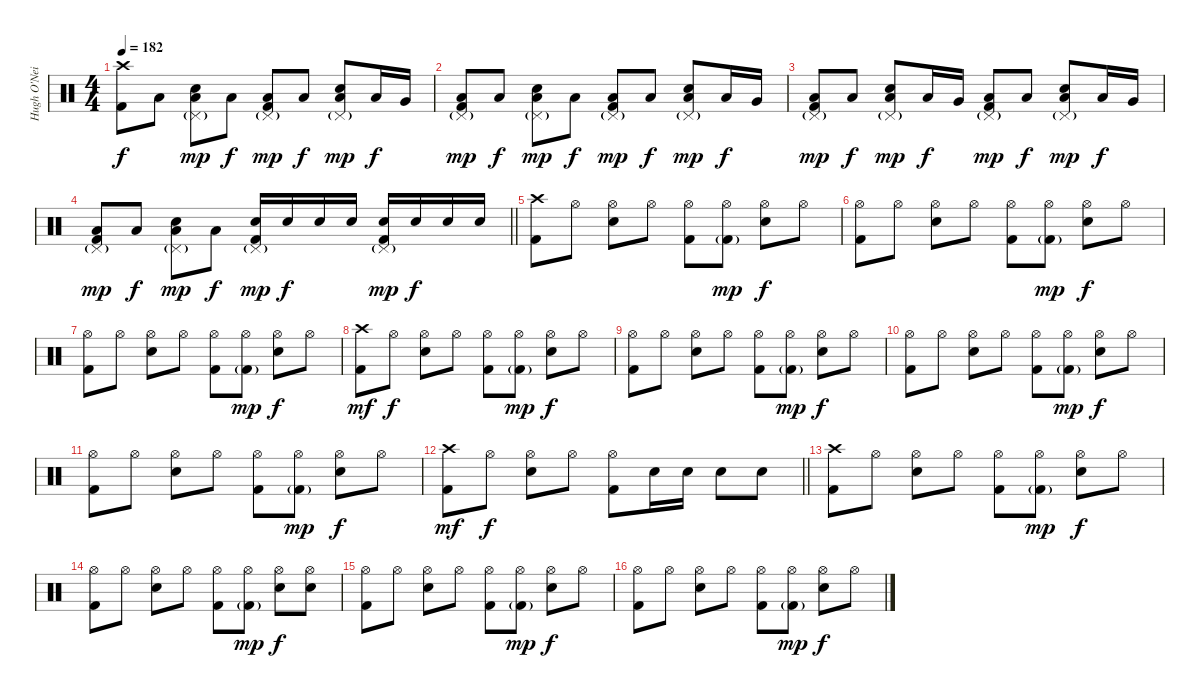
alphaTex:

\track ("Hugh O'Neil" "Hugh O'Nei") {instrument percussion}
\staff {score}
\articulation defaults
\ts (4 4)
\section ("" "")
\tempo 182
\clef neutral
\ks c
("Crash high (hit)" "Kick (hit) 2").8{dy f} "Low Floor Tom (hit)".8 ("Pedal Hi-Hat (hit)"{g} "Electric Snare (hit)" "Low Floor Tom (hit)").8{dy mp} "Low Floor Tom (hit)".8{dy f} ("Pedal Hi-Hat (hit)"{g} "Low Floor Tom (hit)" "Kick (hit) 2").8{dy mp} "Low Floor Tom (hit)".8{dy f} ("Pedal Hi-Hat (hit)"{g} "Electric Snare (hit)" "Low Floor Tom (hit)").8{dy mp} "Low Floor Tom (hit)".16{dy f} "Very Low Tom (hit)".16 |
("Pedal Hi-Hat (hit)"{g} "Low Floor Tom (hit)" "Kick (hit) 2").8{dy mp} "Low Floor Tom (hit)".8{dy f} ("Pedal Hi-Hat (hit)"{g} "Electric Snare (hit)" "Low Floor Tom (hit)").8{dy mp} "Low Floor Tom (hit)".8{dy f} ("Pedal Hi-Hat (hit)"{g} "Low Floor Tom (hit)" "Kick (hit) 2").8{dy mp} "Low Floor Tom (hit)".8{dy f} ("Pedal Hi-Hat (hit)"{g} "Electric Snare (hit)" "Low Floor Tom (hit)").8{dy mp} "Low Floor Tom (hit)".16{dy f} "Very Low Tom (hit)".16 |
("Pedal Hi-Hat (hit)"{g} "Low Floor Tom (hit)" "Kick (hit) 2").8{dy mp} "Low Floor Tom (hit)".8{dy f} ("Pedal Hi-Hat (hit)"{g} "Electric Snare (hit)" "Low Floor Tom (hit)").8{dy mp} "Low Floor Tom (hit)".16{dy f} "Very Low Tom (hit)".16 ("Pedal Hi-Hat (hit)"{g} "Low Floor Tom (hit)" "Kick (hit) 2").8{dy mp} "Low Floor Tom (hit)".8{dy f} ("Pedal Hi-Hat (hit)"{g} "Electric Snare (hit)" "Low Floor Tom (hit)").8{dy mp} "Low Floor Tom (hit)".16{dy f} "Very Low Tom (hit)".16 |
\barLineRight lightlight
("Pedal Hi-Hat (hit)"{g} "Low Floor Tom (hit)" "Kick (hit) 2").8{dy mp} "Low Floor Tom (hit)".8{dy f} ("Pedal Hi-Hat (hit)"{g} "Electric Snare (hit)" "Low Floor Tom (hit)").8{dy mp} "Low Floor Tom (hit)".8{dy f} ("Pedal Hi-Hat (hit)"{g} "Electric Snare (hit)" "Kick (hit) 2").16{dy mp} "Electric Snare (hit)".16{dy f} "Electric Snare (hit)".16 "Electric Snare (hit)".16 ("Pedal Hi-Hat (hit)"{g} "Electric Snare (hit)" "Kick (hit) 2").16{dy mp} "Electric Snare (hit)".16{dy f} "Electric Snare (hit)".16 "Electric Snare (hit)".16 |
\section ("" "")
("Crash high (hit)" "Kick (hit) 2").8 "Hi-Hat (open)".8 ("Hi-Hat (open)" "Electric Snare (hit)").8 "Hi-Hat (open)".8 ("Hi-Hat (open)" "Kick (hit) 2").8 ("Hi-Hat (open)" "Kick (hit) 2"{g}).8{dy mp} ("Hi-Hat (open)" "Electric Snare (hit)").8{dy f} "Hi-Hat (open)".8 |
("Hi-Hat (open)" "Kick (hit) 2").8 "Hi-Hat (open)".8 ("Hi-Hat (open)" "Electric Snare (hit)").8 "Hi-Hat (open)".8 ("Hi-Hat (open)" "Kick (hit) 2").8 ("Hi-Hat (open)" "Kick (hit) 2"{g}).8{dy mp} ("Hi-Hat (open)" "Electric Snare (hit)").8{dy f} "Hi-Hat (open)".8 |
("Hi-Hat (open)" "Kick (hit) 2").8 "Hi-Hat (open)".8 ("Hi-Hat (open)" "Electric Snare (hit)").8 "Hi-Hat (open)".8 ("Hi-Hat (open)" "Kick (hit) 2").8 ("Hi-Hat (open)" "Kick (hit) 2"{g}).8{dy mp} ("Hi-Hat (open)" "Electric Snare (hit)").8{dy f} "Hi-Hat (open)".8 |
("Crash high (hit)" "Kick (hit) 2").8{dy mf} "Hi-Hat (open)".8{dy f} ("Hi-Hat (open)" "Electric Snare (hit)").8 "Hi-Hat (open)".8 ("Hi-Hat (open)" "Kick (hit) 2").8 ("Hi-Hat (open)" "Kick (hit) 2"{g}).8{dy mp} ("Hi-Hat (open)" "Electric Snare (hit)").8{dy f} "Hi-Hat (open)".8 |
("Hi-Hat (open)" "Kick (hit) 2").8 "Hi-Hat (open)".8 ("Hi-Hat (open)" "Electric Snare (hit)").8 "Hi-Hat (open)".8 ("Hi-Hat (open)" "Kick (hit) 2").8 ("Hi-Hat (open)" "Kick (hit) 2"{g}).8{dy mp} ("Hi-Hat (open)" "Electric Snare (hit)").8{dy f} "Hi-Hat (open)".8 |
("Hi-Hat (open)" "Kick (hit) 2").8 "Hi-Hat (open)".8 ("Hi-Hat (open)" "Electric Snare (hit)").8 "Hi-Hat (open)".8 ("Hi-Hat (open)" "Kick (hit) 2").8 ("Hi-Hat (open)" "Kick (hit) 2"{g}).8{dy mp} ("Hi-Hat (open)" "Electric Snare (hit)").8{dy f} "Hi-Hat (open)".8 |
("Hi-Hat (open)" "Kick (hit) 2").8 "Hi-Hat (open)".8 ("Hi-Hat (open)" "Electric Snare (hit)").8 "Hi-Hat (open)".8 ("Hi-Hat (open)" "Kick (hit) 2").8 ("Hi-Hat (open)" "Kick (hit) 2"{g}).8{dy mp} ("Hi-Hat (open)" "Electric Snare (hit)").8{dy f} "Hi-Hat (open)".8 |
\barLineRight lightlight
("Crash high (hit)" "Kick (hit) 2").8{dy mf} "Hi-Hat (open)".8{dy f} ("Hi-Hat (open)" "Electric Snare (hit)").8 "Hi-Hat (open)".8 ("Hi-Hat (open)" "Kick (hit) 2").8 "Electric Snare (hit)".16 "Electric Snare (hit)".16 "Electric Snare (hit)".8 "Electric Snare (hit)".8 |
\section ("" "")
("Crash high (hit)" "Kick (hit) 2").8 "Hi-Hat (open)".8 ("Hi-Hat (open)" "Electric Snare (hit)").8 "Hi-Hat (open)".8 ("Hi-Hat (open)" "Kick (hit) 2").8 ("Hi-Hat (open)" "Kick (hit) 2"{g}).8{dy mp} ("Hi-Hat (open)" "Electric Snare (hit)").8{dy f} "Hi-Hat (open)".8 |
("Hi-Hat (open)" "Kick (hit) 2").8 "Hi-Hat (open)".8 ("Hi-Hat (open)" "Electric Snare (hit)").8 "Hi-Hat (open)".8 ("Hi-Hat (open)" "Kick (hit) 2").8 ("Hi-Hat (open)" "Kick (hit) 2"{g}).8{dy mp} ("Hi-Hat (open)" "Electric Snare (hit)").8{dy f} ("Hi-Hat (open)" "Electric Snare (hit)").8 |
("Hi-Hat (open)" "Kick (hit) 2").8 "Hi-Hat (open)".8 ("Hi-Hat (open)" "Electric Snare (hit)").8 "Hi-Hat (open)".8 ("Hi-Hat (open)" "Kick (hit) 2").8 ("Hi-Hat (open)" "Kick (hit) 2"{g}).8{dy mp} ("Hi-Hat (open)" "Electric Snare (hit)").8{dy f} "Hi-Hat (open)".8 |
("Hi-Hat (open)" "Kick (hit) 2").8 "Hi-Hat (open)".8 ("Hi-Hat (open)" "Electric Snare (hit)").8 "Hi-Hat (open)".8 ("Hi-Hat (open)" "Kick (hit) 2").8 ("Hi-Hat (open)" "Kick (hit) 2"{g}).8{dy mp} ("Hi-Hat (open)" "Electric Snare (hit)").8{dy f} "Hi-Hat (open)".8
